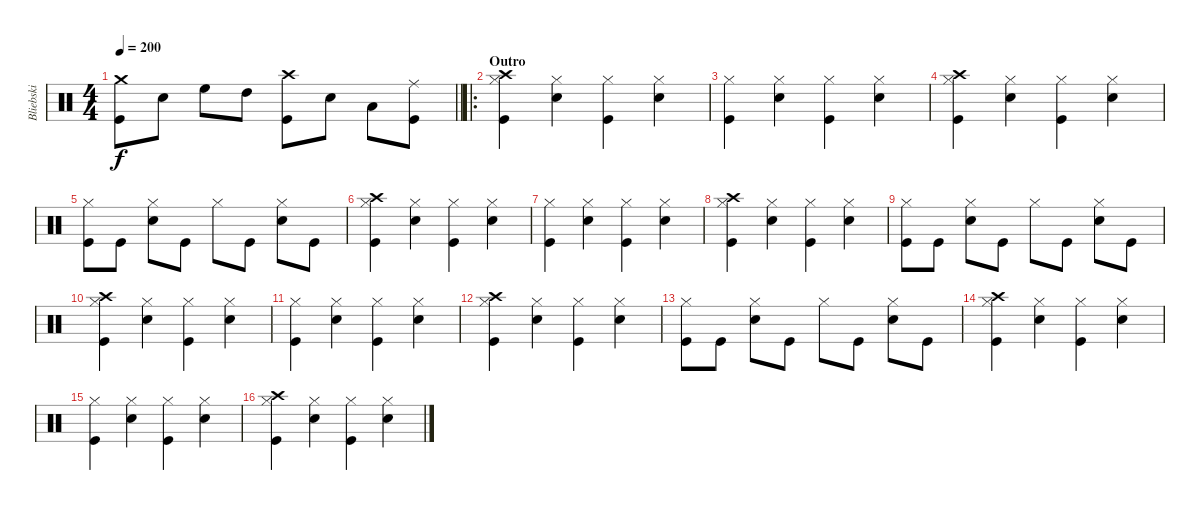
\track ("Bliebski" "Bliebski") {instrument percussion}
\staff {score}
\articulation defaults
\ts (4 4)
\tempo 200
\clef neutral
\barLineRight lightlight
\ks c
("Crash medium (hit)" "Kick (hit)").8{dy f} "Snare (hit) 2".8 "High Floor Tom (hit)".8 "High Tom (hit)".8 ("Crash high (hit)" "Kick (hit)").8 "Snare (hit) 2".8 "Low Tom (hit)".8 ("Ride (middle)" "Kick (hit)").8 |
\ro
\section ("" "Outro")
("Crash high (hit)" "Hi-Hat (closed)" "Kick (hit)").4 ("Hi-Hat (closed)" "Snare (hit) 2").4 ("Hi-Hat (closed)" "Kick (hit)").4 ("Hi-Hat (closed)" "Snare (hit) 2").4 |
("Hi-Hat (closed)" "Kick (hit)").4 ("Hi-Hat (closed)" "Snare (hit) 2").4 ("Hi-Hat (closed)" "Kick (hit)").4 ("Hi-Hat (closed)" "Snare (hit) 2").4 |
("Crash high (hit)" "Hi-Hat (closed)" "Kick (hit)").4 ("Hi-Hat (closed)" "Snare (hit) 2").4 ("Hi-Hat (closed)" "Kick (hit)").4 ("Hi-Hat (closed)" "Snare (hit) 2").4 |
("Hi-Hat (closed)" "Kick (hit)").8 "Kick (hit)".8 ("Hi-Hat (closed)" "Snare (hit) 2").8 "Kick (hit)".8 "Hi-Hat (closed)".8 "Kick (hit)".8 ("Hi-Hat (closed)" "Snare (hit) 2").8 "Kick (hit)".8 |
("Crash high (hit)" "Hi-Hat (closed)" "Kick (hit)").4 ("Hi-Hat (closed)" "Snare (hit) 2").4 ("Hi-Hat (closed)" "Kick (hit)").4 ("Hi-Hat (closed)" "Snare (hit) 2").4 |
("Hi-Hat (closed)" "Kick (hit)").4 ("Hi-Hat (closed)" "Snare (hit) 2").4 ("Hi-Hat (closed)" "Kick (hit)").4 ("Hi-Hat (closed)" "Snare (hit) 2").4 |
("Crash high (hit)" "Hi-Hat (closed)" "Kick (hit)").4 ("Hi-Hat (closed)" "Snare (hit) 2").4 ("Hi-Hat (closed)" "Kick (hit)").4 ("Hi-Hat (closed)" "Snare (hit) 2").4 |
("Hi-Hat (closed)" "Kick (hit)").8 "Kick (hit)".8 ("Hi-Hat (closed)" "Snare (hit) 2").8 "Kick (hit)".8 "Hi-Hat (closed)".8 "Kick (hit)".8 ("Hi-Hat (closed)" "Snare (hit) 2").8 "Kick (hit)".8 |
("Crash high (hit)" "Hi-Hat (closed)" "Kick (hit)").4 ("Hi-Hat (closed)" "Snare (hit) 2").4 ("Hi-Hat (closed)" "Kick (hit)").4 ("Hi-Hat (closed)" "Snare (hit) 2").4 |
("Hi-Hat (closed)" "Kick (hit)").4 ("Hi-Hat (closed)" "Snare (hit) 2").4 ("Hi-Hat (closed)" "Kick (hit)").4 ("Hi-Hat (closed)" "Snare (hit) 2").4 |
("Crash high (hit)" "Hi-Hat (closed)" "Kick (hit)").4 ("Hi-Hat (closed)" "Snare (hit) 2").4 ("Hi-Hat (closed)" "Kick (hit)").4 ("Hi-Hat (closed)" "Snare (hit) 2").4 |
("Hi-Hat (closed)" "Kick (hit)").8 "Kick (hit)".8 ("Hi-Hat (closed)" "Snare (hit) 2").8 "Kick (hit)".8 "Hi-Hat (closed)".8 "Kick (hit)".8 ("Hi-Hat (closed)" "Snare (hit) 2").8 "Kick (hit)".8 |
("Crash high (hit)" "Hi-Hat (closed)" "Kick (hit)").4 ("Hi-Hat (closed)" "Snare (hit) 2").4 ("Hi-Hat (closed)" "Kick (hit)").4 ("Hi-Hat (closed)" "Snare (hit) 2").4 |
("Hi-Hat (closed)" "Kick (hit)").4 ("Hi-Hat (closed)" "Snare (hit) 2").4 ("Hi-Hat (closed)" "Kick (hit)").4 ("Hi-Hat (closed)" "Snare (hit) 2").4 |
("Crash high (hit)" "Hi-Hat (closed)" "Kick (hit)").4 ("Hi-Hat (closed)" "Snare (hit) 2").4 ("Hi-Hat (closed)" "Kick (hit)").4 ("Hi-Hat (closed)" "Snare (hit) 2").4
